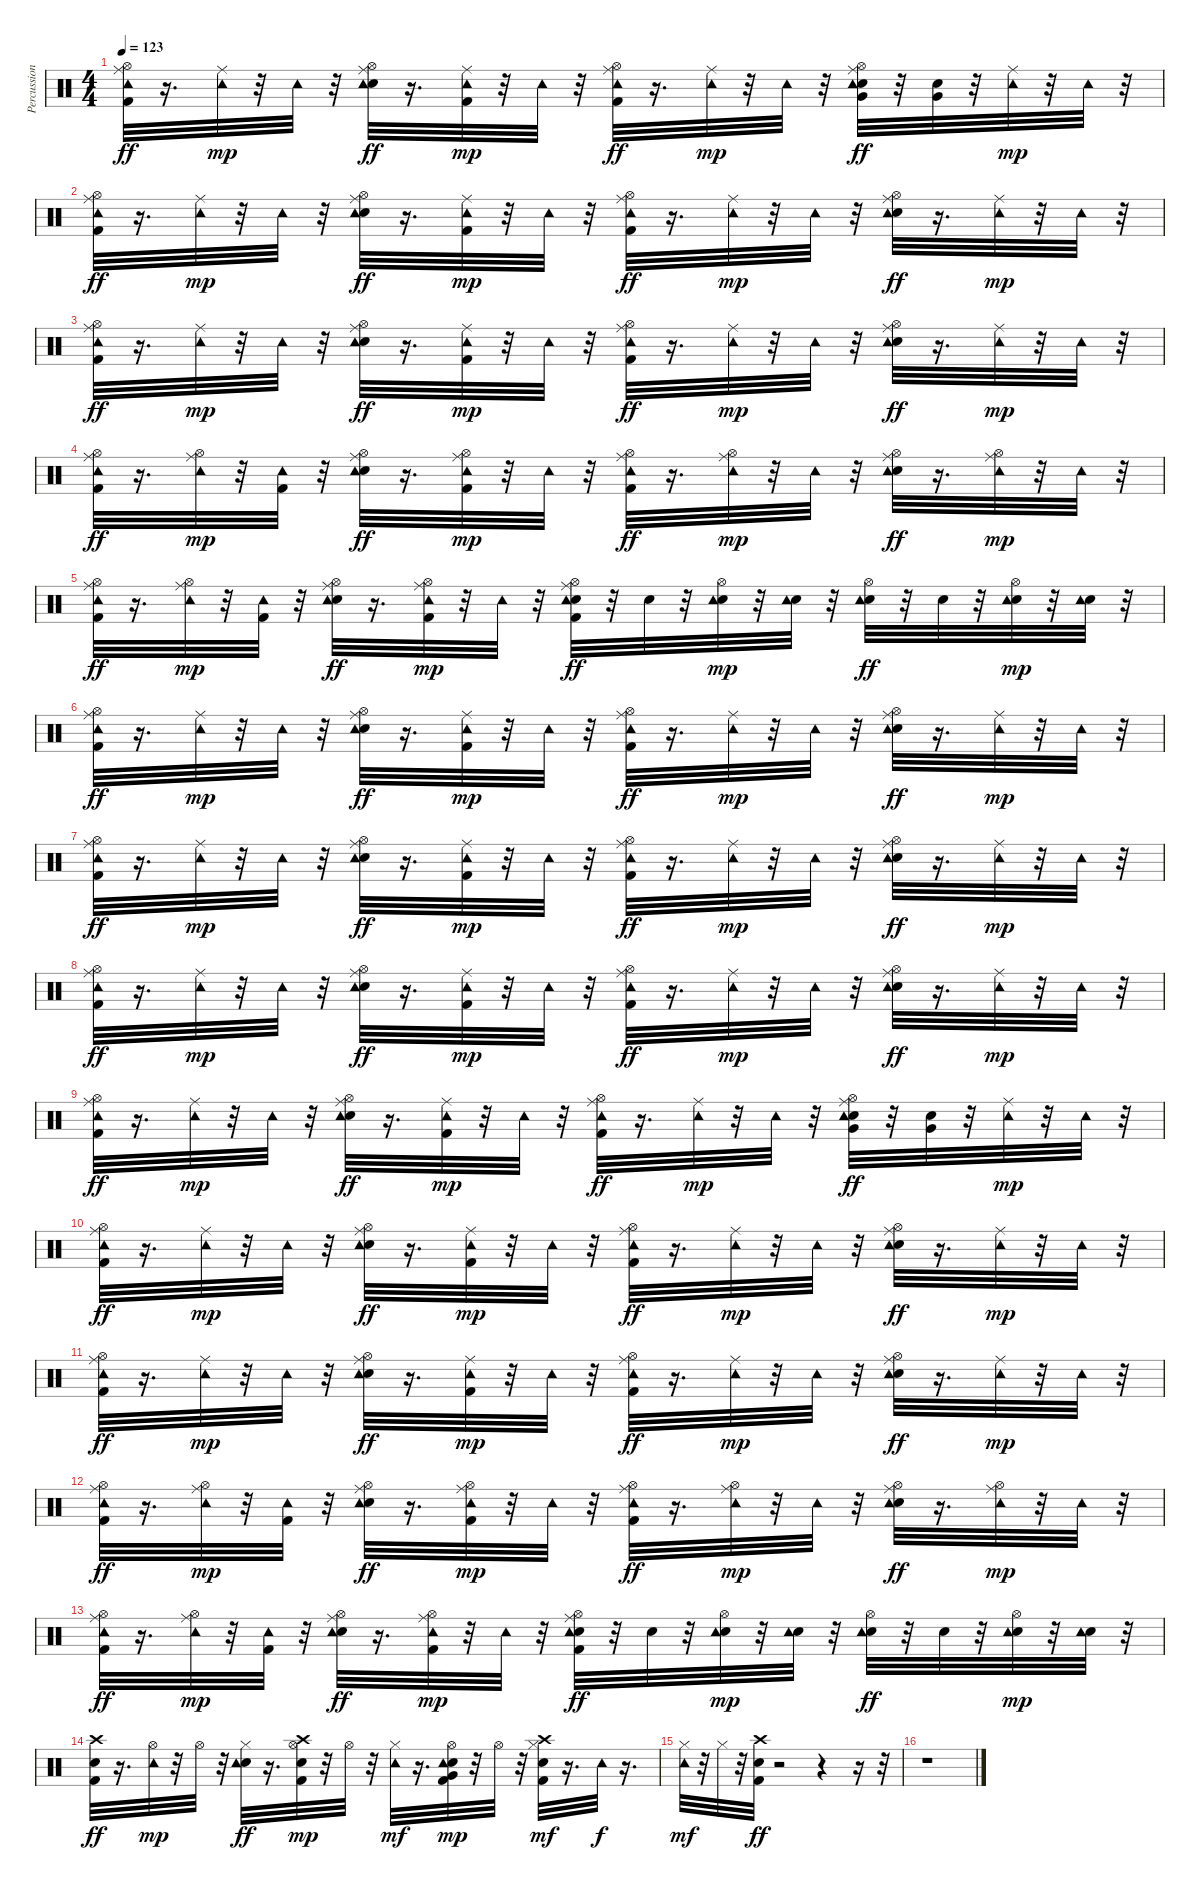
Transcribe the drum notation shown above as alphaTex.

\track ("Percussion: Liberty D'Vitto" "Percussion") {instrument percussion}
\staff {score}
\articulation defaults
\ts (4 4)
\tempo 123
\clef neutral
\ks c
("Kick (hit) 2" "Hi-Hat (open)" "Ride (middle)" "Tambourine (hit)").32{dy ff} r.16{d} ("Ride (middle)" "Tambourine (hit)").32{dy mp} r.32 "Tambourine (hit)".32 r.32 ("Snare (hit) 2" "Hi-Hat (open)" "Ride (middle)" "Tambourine (hit)").32{dy ff} r.16{d} ("Kick (hit) 2" "Ride (middle)" "Tambourine (hit)").32{dy mp} r.32 "Tambourine (hit)".32 r.32 ("Kick (hit) 2" "Hi-Hat (open)" "Ride (middle)" "Tambourine (hit)").32{dy ff} r.16{d} ("Ride (middle)" "Tambourine (hit)").32{dy mp} r.32 "Tambourine (hit)".32 r.32 ("Snare (hit) 2" "Hi-Hat (open)" "Ride (middle)" "Very Low Tom (hit)" "Tambourine (hit)").32{dy ff} r.32 ("Snare (hit) 2" "Very Low Tom (hit)").32 r.32 ("Ride (middle)" "Tambourine (hit)").32{dy mp} r.32 "Tambourine (hit)".32 r.32 |
("Kick (hit) 2" "Hi-Hat (open)" "Ride (middle)" "Tambourine (hit)").32{dy ff} r.16{d} ("Ride (middle)" "Tambourine (hit)").32{dy mp} r.32 "Tambourine (hit)".32 r.32 ("Snare (hit) 2" "Hi-Hat (open)" "Ride (middle)" "Tambourine (hit)").32{dy ff} r.16{d} ("Kick (hit) 2" "Ride (middle)" "Tambourine (hit)").32{dy mp} r.32 "Tambourine (hit)".32 r.32 ("Kick (hit) 2" "Hi-Hat (open)" "Ride (middle)" "Tambourine (hit)").32{dy ff} r.16{d} ("Ride (middle)" "Tambourine (hit)").32{dy mp} r.32 "Tambourine (hit)".32 r.32 ("Snare (hit) 2" "Hi-Hat (open)" "Ride (middle)" "Tambourine (hit)").32{dy ff} r.16{d} ("Ride (middle)" "Tambourine (hit)").32{dy mp} r.32 "Tambourine (hit)".32 r.32 |
("Kick (hit) 2" "Hi-Hat (open)" "Ride (middle)" "Tambourine (hit)").32{dy ff} r.16{d} ("Ride (middle)" "Tambourine (hit)").32{dy mp} r.32 "Tambourine (hit)".32 r.32 ("Snare (hit) 2" "Hi-Hat (open)" "Ride (middle)" "Tambourine (hit)").32{dy ff} r.16{d} ("Kick (hit) 2" "Ride (middle)" "Tambourine (hit)").32{dy mp} r.32 "Tambourine (hit)".32 r.32 ("Kick (hit) 2" "Hi-Hat (open)" "Ride (middle)" "Tambourine (hit)").32{dy ff} r.16{d} ("Ride (middle)" "Tambourine (hit)").32{dy mp} r.32 "Tambourine (hit)".32 r.32 ("Snare (hit) 2" "Hi-Hat (open)" "Ride (middle)" "Tambourine (hit)").32{dy ff} r.16{d} ("Ride (middle)" "Tambourine (hit)").32{dy mp} r.32 "Tambourine (hit)".32 r.32 |
("Kick (hit) 2" "Hi-Hat (open)" "Ride (middle)" "Tambourine (hit)").32{dy ff} r.16{d} ("Hi-Hat (open)" "Ride (middle)" "Tambourine (hit)").32{dy mp} r.32 ("Kick (hit) 2" "Tambourine (hit)").32 r.32 ("Snare (hit) 2" "Hi-Hat (open)" "Ride (middle)" "Tambourine (hit)").32{dy ff} r.16{d} ("Kick (hit) 2" "Hi-Hat (open)" "Ride (middle)" "Tambourine (hit)").32{dy mp} r.32 "Tambourine (hit)".32 r.32 ("Kick (hit) 2" "Hi-Hat (open)" "Ride (middle)" "Tambourine (hit)").32{dy ff} r.16{d} ("Hi-Hat (open)" "Ride (middle)" "Tambourine (hit)").32{dy mp} r.32 "Tambourine (hit)".32 r.32 ("Snare (hit) 2" "Hi-Hat (open)" "Ride (middle)" "Tambourine (hit)").32{dy ff} r.16{d} ("Hi-Hat (open)" "Ride (middle)" "Tambourine (hit)").32{dy mp} r.32 "Tambourine (hit)".32 r.32 |
("Kick (hit) 2" "Hi-Hat (open)" "Ride (middle)" "Tambourine (hit)").32{dy ff} r.16{d} ("Hi-Hat (open)" "Ride (middle)" "Tambourine (hit)").32{dy mp} r.32 ("Kick (hit) 2" "Tambourine (hit)").32 r.32 ("Snare (hit) 2" "Hi-Hat (open)" "Ride (middle)" "Tambourine (hit)").32{dy ff} r.16{d} ("Kick (hit) 2" "Hi-Hat (open)" "Ride (middle)" "Tambourine (hit)").32{dy mp} r.32 "Tambourine (hit)".32 r.32 ("Kick (hit) 2" "Snare (hit) 2" "Hi-Hat (open)" "Ride (middle)" "Tambourine (hit)").32{dy ff} r.32 "Snare (hit) 2".32 r.32 ("Snare (hit) 2" "Hi-Hat (open)" "Tambourine (hit)").32{dy mp} r.32 ("Snare (hit) 2" "Tambourine (hit)").32 r.32 ("Snare (hit) 2" "Hi-Hat (open)" "Tambourine (hit)").32{dy ff} r.32 "Snare (hit) 2".32 r.32 ("Snare (hit) 2" "Hi-Hat (open)" "Tambourine (hit)").32{dy mp} r.32 ("Snare (hit) 2" "Tambourine (hit)").32 r.32 |
("Kick (hit) 2" "Hi-Hat (open)" "Ride (middle)" "Tambourine (hit)").32{dy ff} r.16{d} ("Ride (middle)" "Tambourine (hit)").32{dy mp} r.32 "Tambourine (hit)".32 r.32 ("Snare (hit) 2" "Hi-Hat (open)" "Ride (middle)" "Tambourine (hit)").32{dy ff} r.16{d} ("Kick (hit) 2" "Ride (middle)" "Tambourine (hit)").32{dy mp} r.32 "Tambourine (hit)".32 r.32 ("Kick (hit) 2" "Hi-Hat (open)" "Ride (middle)" "Tambourine (hit)").32{dy ff} r.16{d} ("Ride (middle)" "Tambourine (hit)").32{dy mp} r.32 "Tambourine (hit)".32 r.32 ("Snare (hit) 2" "Hi-Hat (open)" "Ride (middle)" "Tambourine (hit)").32{dy ff} r.16{d} ("Ride (middle)" "Tambourine (hit)").32{dy mp} r.32 "Tambourine (hit)".32 r.32 |
("Kick (hit) 2" "Hi-Hat (open)" "Ride (middle)" "Tambourine (hit)").32{dy ff} r.16{d} ("Ride (middle)" "Tambourine (hit)").32{dy mp} r.32 "Tambourine (hit)".32 r.32 ("Snare (hit) 2" "Hi-Hat (open)" "Ride (middle)" "Tambourine (hit)").32{dy ff} r.16{d} ("Kick (hit) 2" "Ride (middle)" "Tambourine (hit)").32{dy mp} r.32 "Tambourine (hit)".32 r.32 ("Kick (hit) 2" "Hi-Hat (open)" "Ride (middle)" "Tambourine (hit)").32{dy ff} r.16{d} ("Ride (middle)" "Tambourine (hit)").32{dy mp} r.32 "Tambourine (hit)".32 r.32 ("Snare (hit) 2" "Hi-Hat (open)" "Ride (middle)" "Tambourine (hit)").32{dy ff} r.16{d} ("Ride (middle)" "Tambourine (hit)").32{dy mp} r.32 "Tambourine (hit)".32 r.32 |
("Kick (hit) 2" "Hi-Hat (open)" "Ride (middle)" "Tambourine (hit)").32{dy ff} r.16{d} ("Ride (middle)" "Tambourine (hit)").32{dy mp} r.32 "Tambourine (hit)".32 r.32 ("Snare (hit) 2" "Hi-Hat (open)" "Ride (middle)" "Tambourine (hit)").32{dy ff} r.16{d} ("Kick (hit) 2" "Ride (middle)" "Tambourine (hit)").32{dy mp} r.32 "Tambourine (hit)".32 r.32 ("Kick (hit) 2" "Hi-Hat (open)" "Ride (middle)" "Tambourine (hit)").32{dy ff} r.16{d} ("Ride (middle)" "Tambourine (hit)").32{dy mp} r.32 "Tambourine (hit)".32 r.32 ("Snare (hit) 2" "Hi-Hat (open)" "Ride (middle)" "Tambourine (hit)").32{dy ff} r.16{d} ("Ride (middle)" "Tambourine (hit)").32{dy mp} r.32 "Tambourine (hit)".32 r.32 |
("Kick (hit) 2" "Hi-Hat (open)" "Ride (middle)" "Tambourine (hit)").32{dy ff} r.16{d} ("Ride (middle)" "Tambourine (hit)").32{dy mp} r.32 "Tambourine (hit)".32 r.32 ("Snare (hit) 2" "Hi-Hat (open)" "Ride (middle)" "Tambourine (hit)").32{dy ff} r.16{d} ("Kick (hit) 2" "Ride (middle)" "Tambourine (hit)").32{dy mp} r.32 "Tambourine (hit)".32 r.32 ("Kick (hit) 2" "Hi-Hat (open)" "Ride (middle)" "Tambourine (hit)").32{dy ff} r.16{d} ("Ride (middle)" "Tambourine (hit)").32{dy mp} r.32 "Tambourine (hit)".32 r.32 ("Snare (hit) 2" "Hi-Hat (open)" "Ride (middle)" "Very Low Tom (hit)" "Tambourine (hit)").32{dy ff} r.32 ("Snare (hit) 2" "Very Low Tom (hit)").32 r.32 ("Ride (middle)" "Tambourine (hit)").32{dy mp} r.32 "Tambourine (hit)".32 r.32 |
("Kick (hit) 2" "Hi-Hat (open)" "Ride (middle)" "Tambourine (hit)").32{dy ff} r.16{d} ("Ride (middle)" "Tambourine (hit)").32{dy mp} r.32 "Tambourine (hit)".32 r.32 ("Snare (hit) 2" "Hi-Hat (open)" "Ride (middle)" "Tambourine (hit)").32{dy ff} r.16{d} ("Kick (hit) 2" "Ride (middle)" "Tambourine (hit)").32{dy mp} r.32 "Tambourine (hit)".32 r.32 ("Kick (hit) 2" "Hi-Hat (open)" "Ride (middle)" "Tambourine (hit)").32{dy ff} r.16{d} ("Ride (middle)" "Tambourine (hit)").32{dy mp} r.32 "Tambourine (hit)".32 r.32 ("Snare (hit) 2" "Hi-Hat (open)" "Ride (middle)" "Tambourine (hit)").32{dy ff} r.16{d} ("Ride (middle)" "Tambourine (hit)").32{dy mp} r.32 "Tambourine (hit)".32 r.32 |
("Kick (hit) 2" "Hi-Hat (open)" "Ride (middle)" "Tambourine (hit)").32{dy ff} r.16{d} ("Ride (middle)" "Tambourine (hit)").32{dy mp} r.32 "Tambourine (hit)".32 r.32 ("Snare (hit) 2" "Hi-Hat (open)" "Ride (middle)" "Tambourine (hit)").32{dy ff} r.16{d} ("Kick (hit) 2" "Ride (middle)" "Tambourine (hit)").32{dy mp} r.32 "Tambourine (hit)".32 r.32 ("Kick (hit) 2" "Hi-Hat (open)" "Ride (middle)" "Tambourine (hit)").32{dy ff} r.16{d} ("Ride (middle)" "Tambourine (hit)").32{dy mp} r.32 "Tambourine (hit)".32 r.32 ("Snare (hit) 2" "Hi-Hat (open)" "Ride (middle)" "Tambourine (hit)").32{dy ff} r.16{d} ("Ride (middle)" "Tambourine (hit)").32{dy mp} r.32 "Tambourine (hit)".32 r.32 |
("Kick (hit) 2" "Hi-Hat (open)" "Ride (middle)" "Tambourine (hit)").32{dy ff} r.16{d} ("Hi-Hat (open)" "Ride (middle)" "Tambourine (hit)").32{dy mp} r.32 ("Kick (hit) 2" "Tambourine (hit)").32 r.32 ("Snare (hit) 2" "Hi-Hat (open)" "Ride (middle)" "Tambourine (hit)").32{dy ff} r.16{d} ("Kick (hit) 2" "Hi-Hat (open)" "Ride (middle)" "Tambourine (hit)").32{dy mp} r.32 "Tambourine (hit)".32 r.32 ("Kick (hit) 2" "Hi-Hat (open)" "Ride (middle)" "Tambourine (hit)").32{dy ff} r.16{d} ("Hi-Hat (open)" "Ride (middle)" "Tambourine (hit)").32{dy mp} r.32 "Tambourine (hit)".32 r.32 ("Snare (hit) 2" "Hi-Hat (open)" "Ride (middle)" "Tambourine (hit)").32{dy ff} r.16{d} ("Hi-Hat (open)" "Ride (middle)" "Tambourine (hit)").32{dy mp} r.32 "Tambourine (hit)".32 r.32 |
("Kick (hit) 2" "Hi-Hat (open)" "Ride (middle)" "Tambourine (hit)").32{dy ff} r.16{d} ("Hi-Hat (open)" "Ride (middle)" "Tambourine (hit)").32{dy mp} r.32 ("Kick (hit) 2" "Tambourine (hit)").32 r.32 ("Snare (hit) 2" "Hi-Hat (open)" "Ride (middle)" "Tambourine (hit)").32{dy ff} r.16{d} ("Kick (hit) 2" "Hi-Hat (open)" "Ride (middle)" "Tambourine (hit)").32{dy mp} r.32 "Tambourine (hit)".32 r.32 ("Kick (hit) 2" "Snare (hit) 2" "Hi-Hat (open)" "Ride (middle)" "Tambourine (hit)").32{dy ff} r.32 "Snare (hit) 2".32 r.32 ("Snare (hit) 2" "Hi-Hat (open)" "Tambourine (hit)").32{dy mp} r.32 ("Snare (hit) 2" "Tambourine (hit)").32 r.32 ("Snare (hit) 2" "Hi-Hat (open)" "Tambourine (hit)").32{dy ff} r.32 "Snare (hit) 2".32 r.32 ("Snare (hit) 2" "Hi-Hat (open)" "Tambourine (hit)").32{dy mp} r.32 ("Snare (hit) 2" "Tambourine (hit)").32 r.32 |
("Kick (hit) 2" "Snare (hit) 2" "Crash high (hit)").32{dy ff} r.16{d} ("Hi-Hat (open)" "Tambourine (hit)").32{dy mp} r.32 "Hi-Hat (open)".32 r.32 ("Snare (hit) 2" "Hi-Hat (closed)" "Tambourine (hit)").32{dy ff} r.16{d} ("Kick (hit) 2" "Snare (hit) 2" "Hi-Hat (open)" "Crash high (hit)").32{dy mp} r.32 "Hi-Hat (open)".32 r.32 ("Hi-Hat (closed)" "Tambourine (hit)").32{dy mf} r.16{d} ("Kick (hit) 2" "Hi-Hat (open)" "Snare (hit) 2" "Very Low Tom (hit)" "Tambourine (hit)").32{dy mp} r.32 "Hi-Hat (open)".32 r.32 ("Kick (hit) 2" "Snare (hit) 2" "Hi-Hat (closed)" "Crash high (hit)").32{dy mf} r.16{d} "Tambourine (hit)".32{dy f} r.16{d} |
("Hi-Hat (closed)" "Tambourine (hit)").32{dy mf} r.32 "Hi-Hat (closed)".32 r.32 ("Kick (hit) 2" "Snare (hit) 2" "Crash high (hit)").32{dy ff} r.2 r.4 r.16 r.32 |
r.1
